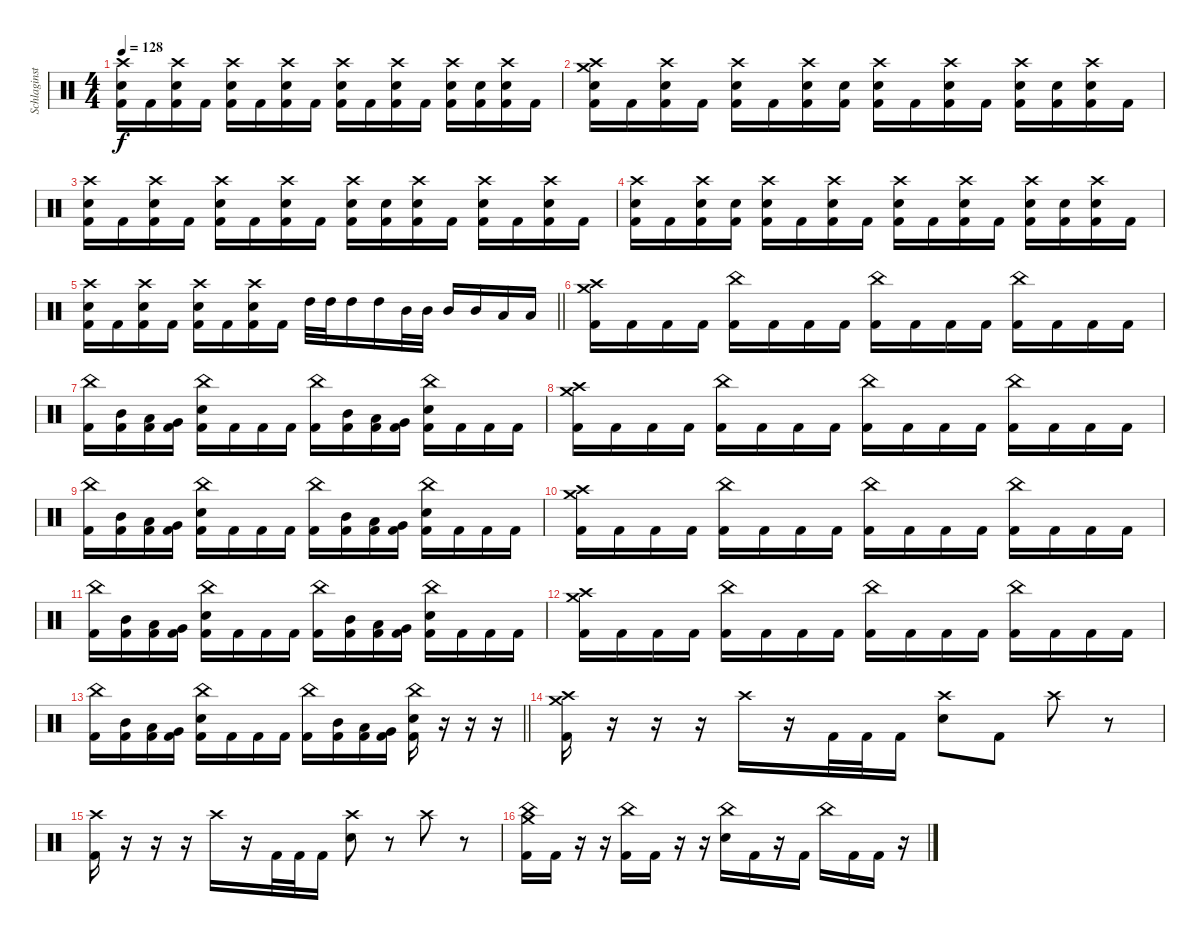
\track ("Schlaginstrumente - Auswahl" "Schlaginst") {instrument percussion}
\staff {score}
\articulation defaults
\ts (4 4)
\tempo 128
\clef neutral
\ks c
("Crash high (hit)" "Electric Snare (hit)" "Kick (hit) 2").16{dy f} "Kick (hit) 2".16 ("Crash high (hit)" "Electric Snare (hit)" "Kick (hit) 2").16 "Kick (hit) 2".16 ("Crash high (hit)" "Electric Snare (hit)" "Kick (hit) 2").16 "Kick (hit) 2".16 ("Crash high (hit)" "Electric Snare (hit)" "Kick (hit) 2").16 "Kick (hit) 2".16 ("Crash high (hit)" "Electric Snare (hit)" "Kick (hit) 2").16 "Kick (hit) 2".16 ("Crash high (hit)" "Electric Snare (hit)" "Kick (hit) 2").16 "Kick (hit) 2".16 ("Crash high (hit)" "Electric Snare (hit)" "Kick (hit) 2").16 ("Electric Snare (hit)" "Kick (hit) 2").16 ("Crash high (hit)" "Electric Snare (hit)" "Kick (hit) 2").16 "Kick (hit) 2".16 |
("Crash medium (hit)" "Crash high (hit)" "Electric Snare (hit)" "Kick (hit) 2").16 "Kick (hit) 2".16 ("Crash high (hit)" "Electric Snare (hit)" "Kick (hit) 2").16 "Kick (hit) 2".16 ("Crash high (hit)" "Electric Snare (hit)" "Kick (hit) 2").16 "Kick (hit) 2".16 ("Crash high (hit)" "Electric Snare (hit)" "Kick (hit) 2").16 ("Electric Snare (hit)" "Kick (hit) 2").16 ("Crash high (hit)" "Electric Snare (hit)" "Kick (hit) 2").16 "Kick (hit) 2".16 ("Crash high (hit)" "Electric Snare (hit)" "Kick (hit) 2").16 "Kick (hit) 2".16 ("Crash high (hit)" "Electric Snare (hit)" "Kick (hit) 2").16 ("Electric Snare (hit)" "Kick (hit) 2").16 ("Crash high (hit)" "Electric Snare (hit)" "Kick (hit) 2").16 "Kick (hit) 2".16 |
("Crash high (hit)" "Electric Snare (hit)" "Kick (hit) 2").16 "Kick (hit) 2".16 ("Crash high (hit)" "Electric Snare (hit)" "Kick (hit) 2").16 "Kick (hit) 2".16 ("Crash high (hit)" "Electric Snare (hit)" "Kick (hit) 2").16 "Kick (hit) 2".16 ("Crash high (hit)" "Electric Snare (hit)" "Kick (hit) 2").16 "Kick (hit) 2".16 ("Crash high (hit)" "Electric Snare (hit)" "Kick (hit) 2").16 ("Electric Snare (hit)" "Kick (hit) 2").16 ("Crash high (hit)" "Electric Snare (hit)" "Kick (hit) 2").16 "Kick (hit) 2".16 ("Crash high (hit)" "Electric Snare (hit)" "Kick (hit) 2").16 "Kick (hit) 2".16 ("Crash high (hit)" "Electric Snare (hit)" "Kick (hit) 2").16 "Kick (hit) 2".16 |
("Crash high (hit)" "Electric Snare (hit)" "Kick (hit) 2").16 "Kick (hit) 2".16 ("Crash high (hit)" "Electric Snare (hit)" "Kick (hit) 2").16 ("Electric Snare (hit)" "Kick (hit) 2").16 ("Crash high (hit)" "Electric Snare (hit)" "Kick (hit) 2").16 "Kick (hit) 2".16 ("Crash high (hit)" "Electric Snare (hit)" "Kick (hit) 2").16 "Kick (hit) 2".16 ("Crash high (hit)" "Electric Snare (hit)" "Kick (hit) 2").16 "Kick (hit) 2".16 ("Crash high (hit)" "Electric Snare (hit)" "Kick (hit) 2").16 "Kick (hit) 2".16 ("Crash high (hit)" "Electric Snare (hit)" "Kick (hit) 2").16 ("Electric Snare (hit)" "Kick (hit) 2").16 ("Crash high (hit)" "Electric Snare (hit)" "Kick (hit) 2").16 "Kick (hit) 2".16 |
\barLineRight lightlight
("Crash high (hit)" "Electric Snare (hit)" "Kick (hit) 2").16 "Kick (hit) 2".16 ("Crash high (hit)" "Electric Snare (hit)" "Kick (hit) 2").16 "Kick (hit) 2".16 ("Crash high (hit)" "Electric Snare (hit)" "Kick (hit) 2").16 "Kick (hit) 2".16 ("Crash high (hit)" "Electric Snare (hit)" "Kick (hit) 2").16 "Kick (hit) 2".16 "High Tom (hit)".32 "High Tom (hit)".32 "High Tom (hit)".16 "High Tom (hit)".16 "Mid Tom (hit)".32 "Mid Tom (hit)".32 "Mid Tom (hit)".16 "Mid Tom (hit)".16 "Low Tom (hit)".16 "Low Tom (hit)".16 |
("Crash medium (hit)" "Crash high (hit)" "Kick (hit) 2").16 "Kick (hit) 2".16 "Kick (hit) 2".16 "Kick (hit) 2".16 ("China (hit)" "Kick (hit) 2").16 "Kick (hit) 2".16 "Kick (hit) 2".16 "Kick (hit) 2".16 ("China (hit)" "Kick (hit) 2").16 "Kick (hit) 2".16 "Kick (hit) 2".16 "Kick (hit) 2".16 ("China (hit)" "Kick (hit) 2").16 "Kick (hit) 2".16 "Kick (hit) 2".16 "Kick (hit) 2".16 |
("China (hit)" "Kick (hit) 2").16 ("Mid Tom (hit)" "Kick (hit) 2").16 ("Low Tom (hit)" "Kick (hit) 2").16 ("Very Low Tom (hit)" "Kick (hit) 2").16 ("China (hit)" "Electric Snare (hit)" "Kick (hit) 2").16 "Kick (hit) 2".16 "Kick (hit) 2".16 "Kick (hit) 2".16 ("China (hit)" "Kick (hit) 2").16 ("Mid Tom (hit)" "Kick (hit) 2").16 ("Low Tom (hit)" "Kick (hit) 2").16 ("Very Low Tom (hit)" "Kick (hit) 2").16 ("China (hit)" "Electric Snare (hit)" "Kick (hit) 2").16 "Kick (hit) 2".16 "Kick (hit) 2".16 "Kick (hit) 2".16 |
("Crash medium (hit)" "Crash high (hit)" "Kick (hit) 2").16 "Kick (hit) 2".16 "Kick (hit) 2".16 "Kick (hit) 2".16 ("China (hit)" "Kick (hit) 2").16 "Kick (hit) 2".16 "Kick (hit) 2".16 "Kick (hit) 2".16 ("China (hit)" "Kick (hit) 2").16 "Kick (hit) 2".16 "Kick (hit) 2".16 "Kick (hit) 2".16 ("China (hit)" "Kick (hit) 2").16 "Kick (hit) 2".16 "Kick (hit) 2".16 "Kick (hit) 2".16 |
("China (hit)" "Kick (hit) 2").16 ("Mid Tom (hit)" "Kick (hit) 2").16 ("Low Tom (hit)" "Kick (hit) 2").16 ("Very Low Tom (hit)" "Kick (hit) 2").16 ("China (hit)" "Electric Snare (hit)" "Kick (hit) 2").16 "Kick (hit) 2".16 "Kick (hit) 2".16 "Kick (hit) 2".16 ("China (hit)" "Kick (hit) 2").16 ("Mid Tom (hit)" "Kick (hit) 2").16 ("Low Tom (hit)" "Kick (hit) 2").16 ("Very Low Tom (hit)" "Kick (hit) 2").16 ("China (hit)" "Electric Snare (hit)" "Kick (hit) 2").16 "Kick (hit) 2".16 "Kick (hit) 2".16 "Kick (hit) 2".16 |
("Crash medium (hit)" "Crash high (hit)" "Kick (hit) 2").16 "Kick (hit) 2".16 "Kick (hit) 2".16 "Kick (hit) 2".16 ("China (hit)" "Kick (hit) 2").16 "Kick (hit) 2".16 "Kick (hit) 2".16 "Kick (hit) 2".16 ("China (hit)" "Kick (hit) 2").16 "Kick (hit) 2".16 "Kick (hit) 2".16 "Kick (hit) 2".16 ("China (hit)" "Kick (hit) 2").16 "Kick (hit) 2".16 "Kick (hit) 2".16 "Kick (hit) 2".16 |
("China (hit)" "Kick (hit) 2").16 ("Mid Tom (hit)" "Kick (hit) 2").16 ("Low Tom (hit)" "Kick (hit) 2").16 ("Very Low Tom (hit)" "Kick (hit) 2").16 ("China (hit)" "Electric Snare (hit)" "Kick (hit) 2").16 "Kick (hit) 2".16 "Kick (hit) 2".16 "Kick (hit) 2".16 ("China (hit)" "Kick (hit) 2").16 ("Mid Tom (hit)" "Kick (hit) 2").16 ("Low Tom (hit)" "Kick (hit) 2").16 ("Very Low Tom (hit)" "Kick (hit) 2").16 ("China (hit)" "Electric Snare (hit)" "Kick (hit) 2").16 "Kick (hit) 2".16 "Kick (hit) 2".16 "Kick (hit) 2".16 |
("Crash medium (hit)" "Crash high (hit)" "Kick (hit) 2").16 "Kick (hit) 2".16 "Kick (hit) 2".16 "Kick (hit) 2".16 ("China (hit)" "Kick (hit) 2").16 "Kick (hit) 2".16 "Kick (hit) 2".16 "Kick (hit) 2".16 ("China (hit)" "Kick (hit) 2").16 "Kick (hit) 2".16 "Kick (hit) 2".16 "Kick (hit) 2".16 ("China (hit)" "Kick (hit) 2").16 "Kick (hit) 2".16 "Kick (hit) 2".16 "Kick (hit) 2".16 |
\barLineRight lightlight
("China (hit)" "Kick (hit) 2").16 ("Mid Tom (hit)" "Kick (hit) 2").16 ("Low Tom (hit)" "Kick (hit) 2").16 ("Very Low Tom (hit)" "Kick (hit) 2").16 ("China (hit)" "Electric Snare (hit)" "Kick (hit) 2").16 "Kick (hit) 2".16 "Kick (hit) 2".16 "Kick (hit) 2".16 ("China (hit)" "Kick (hit) 2").16 ("Mid Tom (hit)" "Kick (hit) 2").16 ("Low Tom (hit)" "Kick (hit) 2").16 ("Very Low Tom (hit)" "Kick (hit) 2").16 ("China (hit)" "Electric Snare (hit)" "Kick (hit) 2").16 r.16 r.16 r.16 |
("Crash medium (hit)" "Crash high (hit)" "Kick (hit) 2").16 r.16 r.16 r.16 "Crash high (hit)".16 r.16 "Kick (hit) 2".32 "Kick (hit) 2".32 "Kick (hit) 2".16 ("Crash high (hit)" "Electric Snare (hit)").8 "Kick (hit) 2".8 "Crash high (hit)".8 r.8 |
("Crash high (hit)" "Kick (hit) 2").16 r.16 r.16 r.16 "Crash high (hit)".16 r.16 "Kick (hit) 2".32 "Kick (hit) 2".32 "Kick (hit) 2".16 ("Crash high (hit)" "Electric Snare (hit)").8 r.8 "Crash high (hit)".8 r.8 |
("China (hit)" "Crash medium (hit)" "Kick (hit) 2").16 "Kick (hit) 2".16 r.16 r.16 ("China (hit)" "Kick (hit) 2").16 "Kick (hit) 2".16 r.16 r.16 ("China (hit)" "Electric Snare (hit)").16 "Kick (hit) 2".16 r.16 "Kick (hit) 2".16 "China (hit)".16 "Kick (hit) 2".16 "Kick (hit) 2".16 r.16
